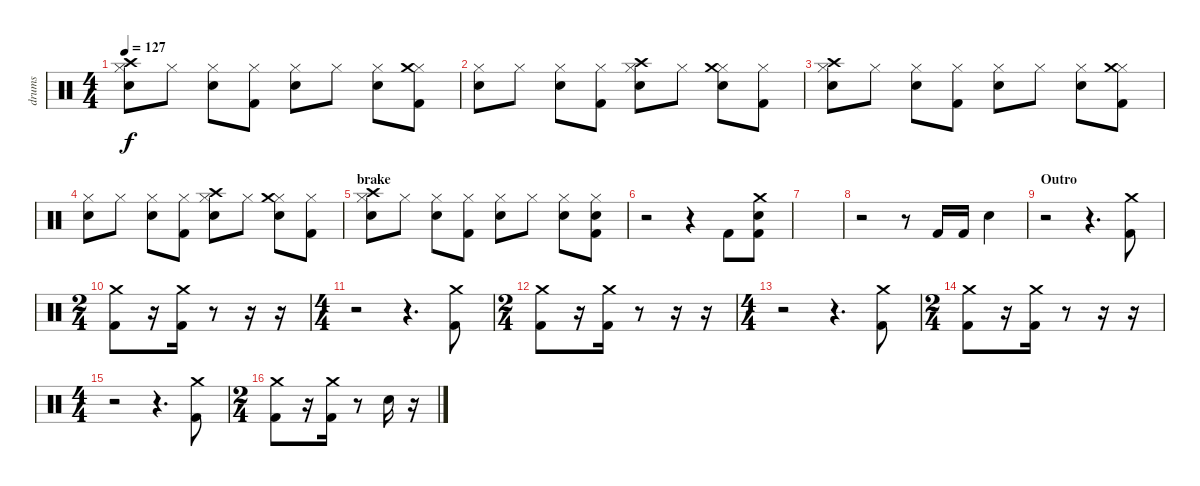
\track ("drums" "drums") {instrument percussion}
\staff {score}
\articulation defaults
\ts (4 4)
\tempo 127
\clef neutral
\ks c
("Electric Snare (hit)" "Hi-Hat (closed)" "Crash high (hit)").8{dy f} "Hi-Hat (closed)".8 ("Electric Snare (hit)" "Hi-Hat (closed)").8 ("Kick (hit) 2" "Hi-Hat (closed)").8 ("Electric Snare (hit)" "Hi-Hat (closed)").8 "Hi-Hat (closed)".8 ("Electric Snare (hit)" "Hi-Hat (closed)").8 ("Kick (hit) 2" "Hi-Hat (closed)" "Crash medium (hit)").8 |
("Electric Snare (hit)" "Hi-Hat (closed)").8 "Hi-Hat (closed)".8 ("Electric Snare (hit)" "Hi-Hat (closed)").8 ("Kick (hit) 2" "Hi-Hat (closed)").8 ("Electric Snare (hit)" "Hi-Hat (closed)" "Crash high (hit)").8 "Hi-Hat (closed)".8 ("Electric Snare (hit)" "Hi-Hat (closed)" "Crash medium (hit)").8 ("Kick (hit) 2" "Hi-Hat (closed)").8 |
("Electric Snare (hit)" "Hi-Hat (closed)" "Crash high (hit)").8 "Hi-Hat (closed)".8 ("Electric Snare (hit)" "Hi-Hat (closed)").8 ("Kick (hit) 2" "Hi-Hat (closed)").8 ("Electric Snare (hit)" "Hi-Hat (closed)").8 "Hi-Hat (closed)".8 ("Electric Snare (hit)" "Hi-Hat (closed)").8 ("Kick (hit) 2" "Hi-Hat (closed)" "Crash medium (hit)").8 |
("Electric Snare (hit)" "Hi-Hat (closed)").8 "Hi-Hat (closed)".8 ("Electric Snare (hit)" "Hi-Hat (closed)").8 ("Kick (hit) 2" "Hi-Hat (closed)").8 ("Electric Snare (hit)" "Hi-Hat (closed)" "Crash high (hit)").8 "Hi-Hat (closed)".8 ("Electric Snare (hit)" "Hi-Hat (closed)" "Crash medium (hit)").8 ("Kick (hit) 2" "Hi-Hat (closed)").8 |
\section ("" "brake")
("Electric Snare (hit)" "Hi-Hat (closed)" "Crash high (hit)").8 "Hi-Hat (closed)".8 ("Electric Snare (hit)" "Hi-Hat (closed)").8 ("Kick (hit) 2" "Hi-Hat (closed)").8 ("Electric Snare (hit)" "Hi-Hat (closed)").8 "Hi-Hat (closed)".8 ("Electric Snare (hit)" "Hi-Hat (closed)").8 ("Kick (hit) 2" "Electric Snare (hit)" "Hi-Hat (closed)").8 |
r.2 r.4 "Kick (hit) 2".8 ("Kick (hit) 2" "Electric Snare (hit)" "Crash medium (hit)").8 |
|
r.2 r.8 "Kick (hit) 2".16 "Kick (hit) 2".16 "Electric Snare (hit)".4 |
\section ("" "Outro")
r.2 r.4{d} ("Kick (hit) 2" "Crash medium (hit)").8 |
\ts (2 4)
("Kick (hit) 2" "Crash medium (hit)").8 r.16 ("Kick (hit) 2" "Crash medium (hit)").16 r.8 r.16 r.16 |
\ts (4 4)
r.2 r.4{d} ("Kick (hit) 2" "Crash medium (hit)").8 |
\ts (2 4)
("Kick (hit) 2" "Crash medium (hit)").8 r.16 ("Kick (hit) 2" "Crash medium (hit)").16 r.8 r.16 r.16 |
\ts (4 4)
r.2 r.4{d} ("Kick (hit) 2" "Crash medium (hit)").8 |
\ts (2 4)
("Kick (hit) 2" "Crash medium (hit)").8 r.16 ("Kick (hit) 2" "Crash medium (hit)").16 r.8 r.16 r.16 |
\ts (4 4)
r.2 r.4{d} ("Kick (hit) 2" "Crash medium (hit)").8 |
\ts (2 4)
("Kick (hit) 2" "Crash medium (hit)").8 r.16 ("Kick (hit) 2" "Crash medium (hit)").16 r.8 "Electric Snare (hit)".16 r.16
